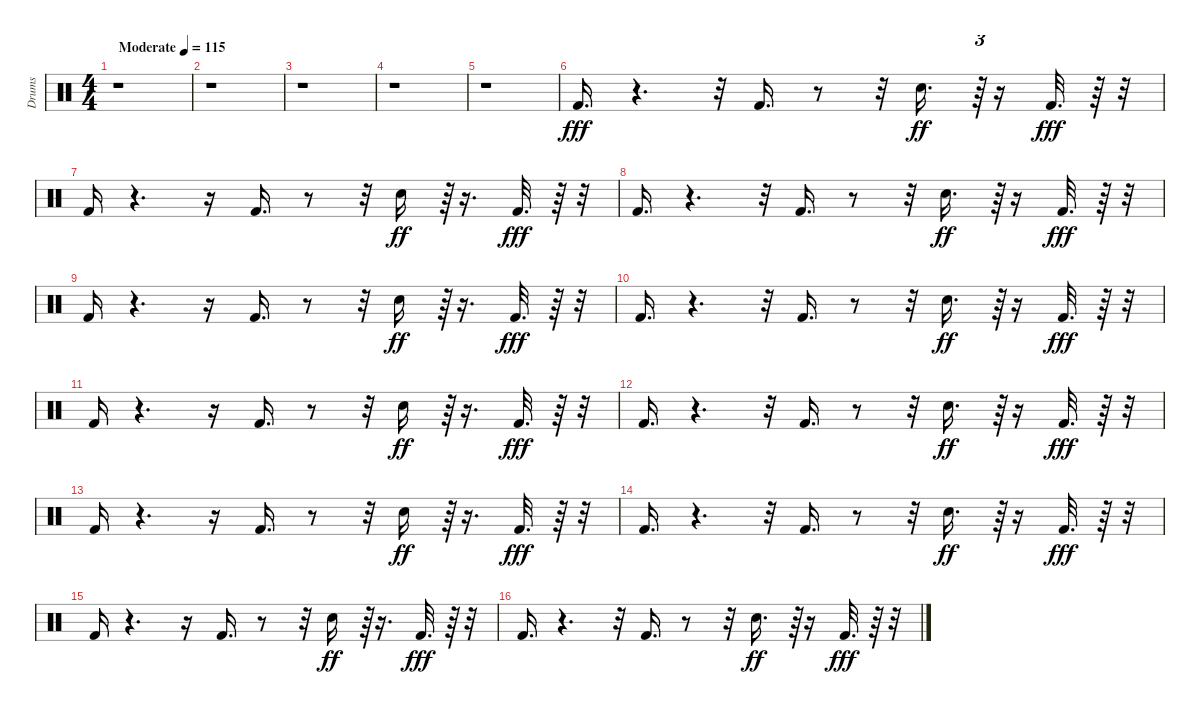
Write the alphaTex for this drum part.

\track ("Drums" "Drums") {instrument percussion}
\staff {score}
\articulation defaults
\ts (4 4)
\tempo (115 "Moderate")
\clef neutral
\ks c
r.1{dy fff} |
r.1 |
r.1 |
r.1 |
r.1 |
"Kick (hit) 2".16{d} r.4{d} r.32 "Kick (hit) 2".16{d} r.8 r.32 "Electric Snare (hit)".16{d dy ff} r.64{tu (3 2)} r.16 "Kick (hit) 2".32{d dy fff} r.64 r.32 |
"Kick (hit) 2".16 r.4{d} r.16 "Kick (hit) 2".16{d} r.8 r.32 "Electric Snare (hit)".16{dy ff} r.64{tu (3 2)} r.16{d} "Kick (hit) 2".32{d dy fff} r.64 r.32 |
"Kick (hit) 2".16{d} r.4{d} r.32 "Kick (hit) 2".16{d} r.8 r.32 "Electric Snare (hit)".16{d dy ff} r.64{tu (3 2)} r.16 "Kick (hit) 2".32{d dy fff} r.64 r.32 |
"Kick (hit) 2".16 r.4{d} r.16 "Kick (hit) 2".16{d} r.8 r.32 "Electric Snare (hit)".16{dy ff} r.64{tu (3 2)} r.16{d} "Kick (hit) 2".32{d dy fff} r.64 r.32 |
"Kick (hit) 2".16{d} r.4{d} r.32 "Kick (hit) 2".16{d} r.8 r.32 "Electric Snare (hit)".16{d dy ff} r.64{tu (3 2)} r.16 "Kick (hit) 2".32{d dy fff} r.64 r.32 |
"Kick (hit) 2".16 r.4{d} r.16 "Kick (hit) 2".16{d} r.8 r.32 "Electric Snare (hit)".16{dy ff} r.64{tu (3 2)} r.16{d} "Kick (hit) 2".32{d dy fff} r.64 r.32 |
"Kick (hit) 2".16{d} r.4{d} r.32 "Kick (hit) 2".16{d} r.8 r.32 "Electric Snare (hit)".16{d dy ff} r.64{tu (3 2)} r.16 "Kick (hit) 2".32{d dy fff} r.64 r.32 |
"Kick (hit) 2".16 r.4{d} r.16 "Kick (hit) 2".16{d} r.8 r.32 "Electric Snare (hit)".16{dy ff} r.64{tu (3 2)} r.16{d} "Kick (hit) 2".32{d dy fff} r.64 r.32 |
"Kick (hit) 2".16{d} r.4{d} r.32 "Kick (hit) 2".16{d} r.8 r.32 "Electric Snare (hit)".16{d dy ff} r.64{tu (3 2)} r.16 "Kick (hit) 2".32{d dy fff} r.64 r.32 |
"Kick (hit) 2".16 r.4{d} r.16 "Kick (hit) 2".16{d} r.8 r.32 "Electric Snare (hit)".16{dy ff} r.64{tu (3 2)} r.16{d} "Kick (hit) 2".32{d dy fff} r.64 r.32 |
"Kick (hit) 2".16{d} r.4{d} r.32 "Kick (hit) 2".16{d} r.8 r.32 "Electric Snare (hit)".16{d dy ff} r.64{tu (3 2)} r.16 "Kick (hit) 2".32{d dy fff} r.64 r.32
